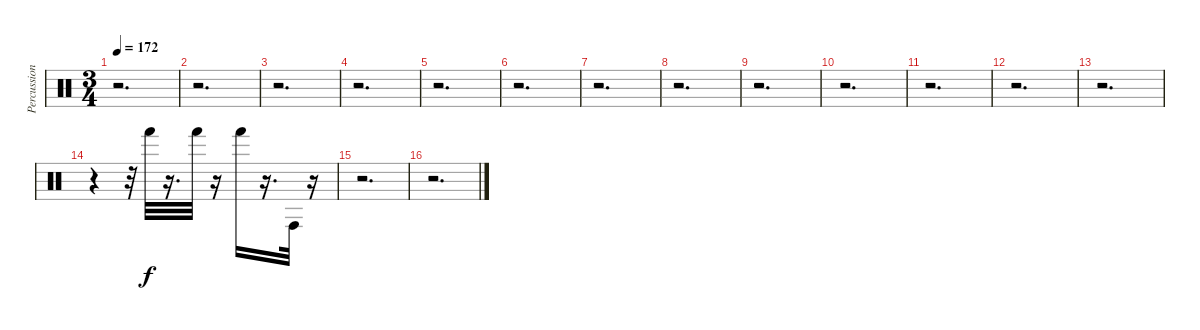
\track ("Percussion" "Percussion") {instrument percussion}
\staff {score}
\articulation defaults
\ts (3 4)
\tempo 172
\clef neutral
\ks c
r.2{d dy f} |
r.2{d} |
r.2{d} |
r.2{d} |
r.2{d} |
r.2{d} |
r.2{d} |
r.2{d} |
r.2{d} |
r.2{d} |
r.2{d} |
r.2{d} |
r.2{d} |
r.4 r.32 "Hand (hit)".32{volume 16 balance 8} r.16{d} "Hand (hit)".32 r.16 "Hand (hit)".16 r.16{d} "Conga high (hit)".32 r.16 |
r.2{d} |
r.2{d}
